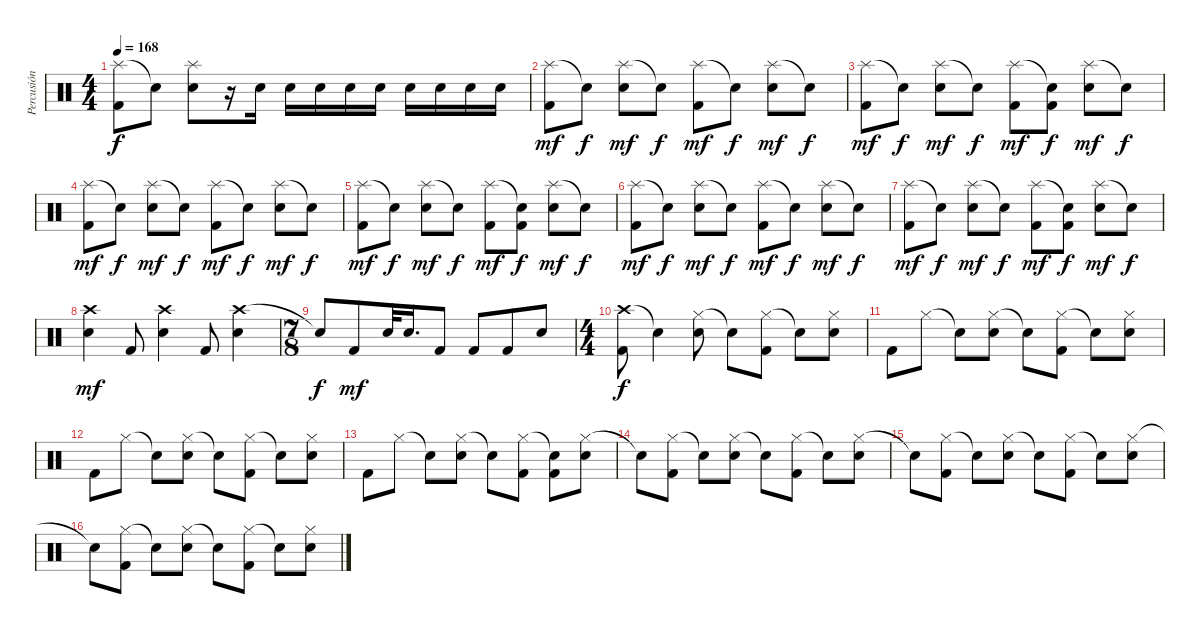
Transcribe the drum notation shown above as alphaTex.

\track ("Percusión" "Percusión") {instrument percussion}
\staff {score}
\articulation defaults
\ts (4 4)
\tempo 168
\clef neutral
\ks c
("Splash (hit)" "Kick (hit) 2").8{dy f} "Snare (hit)"{t}.8 ("Splash (hit)" "Snare (hit) 2").8 r.16 "Snare (hit) 2".16 "Snare (hit) 2".16 "Snare (hit) 2".16 "Snare (hit) 2".16 "Snare (hit) 2".16 "Snare (hit) 2".16 "Snare (hit) 2".16 "Snare (hit) 2".16 "Snare (hit) 2".16 |
("Splash (hit)" "Kick (hit) 2").8{dy mf} "Snare (hit)"{t}.8{dy f} ("Splash (hit)" "Snare (hit) 2").8{dy mf} "Snare (hit)"{t}.8{dy f} ("Splash (hit)" "Kick (hit) 2").8{dy mf} "Snare (hit)"{t}.8{dy f} ("Splash (hit)" "Snare (hit) 2").8{dy mf} "Snare (hit)"{t}.8{dy f} |
("Splash (hit)" "Kick (hit) 2").8{dy mf} "Snare (hit)"{t}.8{dy f} ("Splash (hit)" "Snare (hit) 2").8{dy mf} "Snare (hit)"{t}.8{dy f} ("Splash (hit)" "Kick (hit) 2").8{dy mf} ("Snare (hit)"{t} "Kick (hit) 2").8{dy f} ("Splash (hit)" "Snare (hit) 2").8{dy mf} "Snare (hit)"{t}.8{dy f} |
("Splash (hit)" "Kick (hit) 2").8{dy mf} "Snare (hit)"{t}.8{dy f} ("Splash (hit)" "Snare (hit) 2").8{dy mf} "Snare (hit)"{t}.8{dy f} ("Splash (hit)" "Kick (hit) 2").8{dy mf} "Snare (hit)"{t}.8{dy f} ("Splash (hit)" "Snare (hit) 2").8{dy mf} "Snare (hit)"{t}.8{dy f} |
("Splash (hit)" "Kick (hit) 2").8{dy mf} "Snare (hit)"{t}.8{dy f} ("Splash (hit)" "Snare (hit) 2").8{dy mf} "Snare (hit)"{t}.8{dy f} ("Splash (hit)" "Kick (hit) 2").8{dy mf} ("Snare (hit)"{t} "Kick (hit) 2").8{dy f} ("Splash (hit)" "Snare (hit) 2").8{dy mf} "Snare (hit)"{t}.8{dy f} |
("Splash (hit)" "Kick (hit) 2").8{dy mf} "Snare (hit)"{t}.8{dy f} ("Splash (hit)" "Snare (hit) 2").8{dy mf} "Snare (hit)"{t}.8{dy f} ("Splash (hit)" "Kick (hit) 2").8{dy mf} "Snare (hit)"{t}.8{dy f} ("Splash (hit)" "Snare (hit) 2").8{dy mf} "Snare (hit)"{t}.8{dy f} |
("Splash (hit)" "Kick (hit) 2").8{dy mf} "Snare (hit)"{t}.8{dy f} ("Splash (hit)" "Snare (hit) 2").8{dy mf} "Snare (hit)"{t}.8{dy f} ("Splash (hit)" "Kick (hit) 2").8{dy mf} ("Snare (hit)"{t} "Kick (hit) 2").8{dy f} ("Splash (hit)" "Snare (hit) 2").8{dy mf} "Snare (hit)"{t}.8{dy f} |
("Crash high (hit)" "Snare (hit) 2").4{dy mf} "Kick (hit) 2".8 ("Crash high (hit)" "Snare (hit) 2").4 "Kick (hit) 2".8 ("Crash high (hit)" "Snare (hit) 2").4 |
\ts (7 8)
"Snare (hit)"{t}.8{dy f} "Kick (hit) 2".8{dy mf} "Snare (hit) 2".32 "Snare (hit) 2".16{d} "Kick (hit) 2".8 "Kick (hit) 2".8 "Kick (hit) 2".8 "Snare (hit) 2".8 |
\ts (4 4)
("Crash high (hit)" "Kick (hit) 2").8{dy f} "Snare (hit)"{t}.4 ("Hi-Hat (closed)" "Snare (hit) 2").8 "Snare (hit)"{t}.8 ("Hi-Hat (closed)" "Kick (hit) 2").8 "Snare (hit)"{t}.8 ("Hi-Hat (closed)" "Snare (hit) 2").8 |
"Kick (hit) 2".8 "Hi-Hat (closed)".8 "Snare (hit)"{t}.8 ("Hi-Hat (closed)" "Snare (hit) 2").8 "Snare (hit)"{t}.8 ("Hi-Hat (closed)" "Kick (hit) 2").8 "Snare (hit)"{t}.8 ("Hi-Hat (closed)" "Snare (hit) 2").8 |
"Kick (hit) 2".8 "Hi-Hat (closed)".8 "Snare (hit)"{t}.8 ("Hi-Hat (closed)" "Snare (hit) 2").8 "Snare (hit)"{t}.8 ("Hi-Hat (closed)" "Kick (hit) 2").8 "Snare (hit)"{t}.8 ("Hi-Hat (closed)" "Snare (hit) 2").8 |
"Kick (hit) 2".8 "Hi-Hat (closed)".8 "Snare (hit)"{t}.8 ("Hi-Hat (closed)" "Snare (hit) 2").8 "Snare (hit)"{t}.8 ("Hi-Hat (closed)" "Kick (hit) 2").8 ("Snare (hit)"{t} "Kick (hit) 2").8 ("Hi-Hat (closed)" "Snare (hit) 2").8 |
"Snare (hit)"{t}.8 ("Hi-Hat (closed)" "Kick (hit) 2").8 "Snare (hit)"{t}.8 ("Hi-Hat (closed)" "Snare (hit) 2").8 "Snare (hit)"{t}.8 ("Hi-Hat (closed)" "Kick (hit) 2").8 "Snare (hit)"{t}.8 ("Hi-Hat (closed)" "Snare (hit) 2").8 |
"Snare (hit)"{t}.8 ("Hi-Hat (closed)" "Kick (hit) 2").8 "Snare (hit)"{t}.8 ("Hi-Hat (closed)" "Snare (hit) 2").8 "Snare (hit)"{t}.8 ("Hi-Hat (closed)" "Kick (hit) 2").8 "Snare (hit)"{t}.8 ("Hi-Hat (closed)" "Snare (hit) 2").8 |
"Snare (hit)"{t}.8 ("Hi-Hat (closed)" "Kick (hit) 2").8 "Snare (hit)"{t}.8 ("Hi-Hat (closed)" "Snare (hit) 2").8 "Snare (hit)"{t}.8 ("Hi-Hat (closed)" "Kick (hit) 2").8 "Snare (hit)"{t}.8 ("Hi-Hat (closed)" "Snare (hit) 2").8
